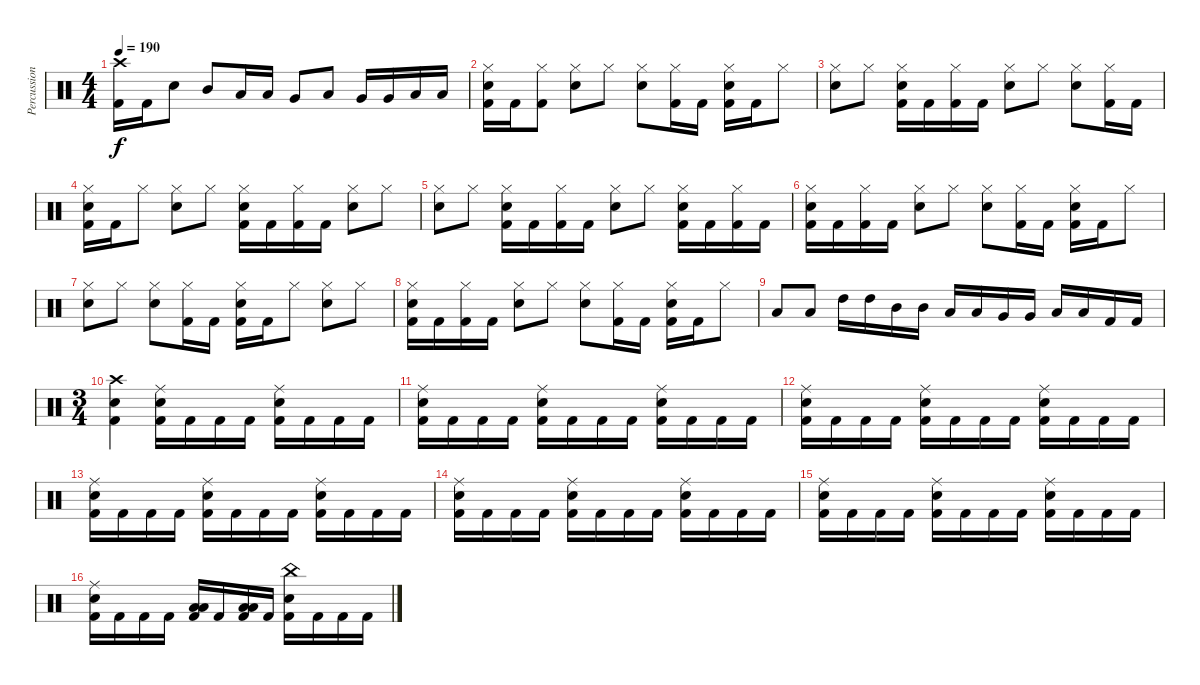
\track ("Percussion" "Percussion") {instrument percussion}
\staff {score}
\articulation defaults
\ts (4 4)
\tempo 190
\clef neutral
\ks c
("Crash high (hit)" "Kick (hit) 2").16{dy f} "Kick (hit) 2".16 "Electric Snare (hit)".8 "Mid Tom (hit)".8 "Low Tom (hit)".16 "Low Tom (hit)".16 "Very Low Tom (hit)".8 "Low Tom (hit)".8 "Very Low Tom (hit)".16 "Very Low Tom (hit)".16 "Low Floor Tom (hit)".16 "Low Floor Tom (hit)".16 |
("Hi-Hat (closed)" "Electric Snare (hit)" "Kick (hit) 2").16 "Kick (hit) 2".16 ("Hi-Hat (closed)" "Kick (hit) 2").8 ("Hi-Hat (closed)" "Electric Snare (hit)").8 "Hi-Hat (closed)".8 ("Hi-Hat (closed)" "Electric Snare (hit)").8 ("Hi-Hat (closed)" "Kick (hit) 2").16 "Kick (hit) 2".16 ("Hi-Hat (closed)" "Electric Snare (hit)" "Kick (hit) 2").16 "Kick (hit) 2".16 "Hi-Hat (closed)".8 |
("Hi-Hat (closed)" "Electric Snare (hit)").8 "Hi-Hat (closed)".8 ("Hi-Hat (closed)" "Electric Snare (hit)" "Kick (hit) 2").16 "Kick (hit) 2".16 ("Hi-Hat (closed)" "Kick (hit) 2").16 "Kick (hit) 2".16 ("Hi-Hat (closed)" "Electric Snare (hit)").8 "Hi-Hat (closed)".8 ("Hi-Hat (closed)" "Electric Snare (hit)").8 ("Hi-Hat (closed)" "Kick (hit) 2").16 "Kick (hit) 2".16 |
("Hi-Hat (closed)" "Electric Snare (hit)" "Kick (hit) 2").16 "Kick (hit) 2".16 "Hi-Hat (closed)".8 ("Hi-Hat (closed)" "Electric Snare (hit)").8 "Hi-Hat (closed)".8 ("Hi-Hat (closed)" "Electric Snare (hit)" "Kick (hit) 2").16 "Kick (hit) 2".16 ("Hi-Hat (closed)" "Kick (hit) 2").16 "Kick (hit) 2".16 ("Hi-Hat (closed)" "Electric Snare (hit)").8 "Hi-Hat (closed)".8 |
("Hi-Hat (closed)" "Electric Snare (hit)").8 "Hi-Hat (closed)".8 ("Hi-Hat (closed)" "Electric Snare (hit)" "Kick (hit) 2").16 "Kick (hit) 2".16 ("Hi-Hat (closed)" "Kick (hit) 2").16 "Kick (hit) 2".16 ("Hi-Hat (closed)" "Electric Snare (hit)").8 "Hi-Hat (closed)".8 ("Hi-Hat (closed)" "Electric Snare (hit)" "Kick (hit) 2").16 "Kick (hit) 2".16 ("Hi-Hat (closed)" "Kick (hit) 2").16 "Kick (hit) 2".16 |
("Hi-Hat (closed)" "Electric Snare (hit)" "Kick (hit) 2").16 "Kick (hit) 2".16 ("Hi-Hat (closed)" "Kick (hit) 2").16 "Kick (hit) 2".16 ("Hi-Hat (closed)" "Electric Snare (hit)").8 "Hi-Hat (closed)".8 ("Hi-Hat (closed)" "Electric Snare (hit)").8 ("Hi-Hat (closed)" "Kick (hit) 2").16 "Kick (hit) 2".16 ("Hi-Hat (closed)" "Electric Snare (hit)" "Kick (hit) 2").16 "Kick (hit) 2".16 "Hi-Hat (closed)".8 |
("Hi-Hat (closed)" "Electric Snare (hit)").8 "Hi-Hat (closed)".8 ("Hi-Hat (closed)" "Electric Snare (hit)").8 ("Hi-Hat (closed)" "Kick (hit) 2").16 "Kick (hit) 2".16 ("Hi-Hat (closed)" "Electric Snare (hit)" "Kick (hit) 2").16 "Kick (hit) 2".16 "Hi-Hat (closed)".8 ("Hi-Hat (closed)" "Electric Snare (hit)").8 "Hi-Hat (closed)".8 |
("Hi-Hat (closed)" "Electric Snare (hit)" "Kick (hit) 2").16 "Kick (hit) 2".16 ("Hi-Hat (closed)" "Kick (hit) 2").16 "Kick (hit) 2".16 ("Hi-Hat (closed)" "Electric Snare (hit)").8 "Hi-Hat (closed)".8 ("Hi-Hat (closed)" "Electric Snare (hit)").8 ("Hi-Hat (closed)" "Kick (hit) 2").16 "Kick (hit) 2".16 ("Hi-Hat (closed)" "Electric Snare (hit)" "Kick (hit) 2").16 "Kick (hit) 2".16 "Hi-Hat (closed)".8 |
"Low Tom (hit)".8 "Low Tom (hit)".8 "High Tom (hit)".16 "High Tom (hit)".16 "Mid Tom (hit)".16 "Mid Tom (hit)".16 "Low Tom (hit)".16 "Low Tom (hit)".16 "Very Low Tom (hit)".16 "Very Low Tom (hit)".16 "Low Floor Tom (hit)".16 "Low Floor Tom (hit)".16 "Kick (hit) 2".16 "Kick (hit) 2".16 |
\ts (3 4)
("Crash high (hit)" "Electric Snare (hit)" "Kick (hit) 2").4 ("Ride (middle)" "Electric Snare (hit)" "Kick (hit) 2").16 "Kick (hit) 2".16 "Kick (hit) 2".16 "Kick (hit) 2".16 ("Ride (middle)" "Electric Snare (hit)" "Kick (hit) 2").16 "Kick (hit) 2".16 "Kick (hit) 2".16 "Kick (hit) 2".16 |
("Ride (middle)" "Electric Snare (hit)" "Kick (hit) 2").16 "Kick (hit) 2".16 "Kick (hit) 2".16 "Kick (hit) 2".16 ("Ride (middle)" "Electric Snare (hit)" "Kick (hit) 2").16 "Kick (hit) 2".16 "Kick (hit) 2".16 "Kick (hit) 2".16 ("Ride (middle)" "Electric Snare (hit)" "Kick (hit) 2").16 "Kick (hit) 2".16 "Kick (hit) 2".16 "Kick (hit) 2".16 |
("Ride (middle)" "Electric Snare (hit)" "Kick (hit) 2").16 "Kick (hit) 2".16 "Kick (hit) 2".16 "Kick (hit) 2".16 ("Ride (middle)" "Electric Snare (hit)" "Kick (hit) 2").16 "Kick (hit) 2".16 "Kick (hit) 2".16 "Kick (hit) 2".16 ("Ride (middle)" "Electric Snare (hit)" "Kick (hit) 2").16 "Kick (hit) 2".16 "Kick (hit) 2".16 "Kick (hit) 2".16 |
("Ride (middle)" "Electric Snare (hit)" "Kick (hit) 2").16 "Kick (hit) 2".16 "Kick (hit) 2".16 "Kick (hit) 2".16 ("Ride (middle)" "Electric Snare (hit)" "Kick (hit) 2").16 "Kick (hit) 2".16 "Kick (hit) 2".16 "Kick (hit) 2".16 ("Ride (middle)" "Electric Snare (hit)" "Kick (hit) 2").16 "Kick (hit) 2".16 "Kick (hit) 2".16 "Kick (hit) 2".16 |
("Ride (middle)" "Electric Snare (hit)" "Kick (hit) 2").16 "Kick (hit) 2".16 "Kick (hit) 2".16 "Kick (hit) 2".16 ("Ride (middle)" "Electric Snare (hit)" "Kick (hit) 2").16 "Kick (hit) 2".16 "Kick (hit) 2".16 "Kick (hit) 2".16 ("Ride (middle)" "Electric Snare (hit)" "Kick (hit) 2").16 "Kick (hit) 2".16 "Kick (hit) 2".16 "Kick (hit) 2".16 |
("Ride (middle)" "Electric Snare (hit)" "Kick (hit) 2").16 "Kick (hit) 2".16 "Kick (hit) 2".16 "Kick (hit) 2".16 ("Ride (middle)" "Electric Snare (hit)" "Kick (hit) 2").16 "Kick (hit) 2".16 "Kick (hit) 2".16 "Kick (hit) 2".16 ("Ride (middle)" "Electric Snare (hit)" "Kick (hit) 2").16 "Kick (hit) 2".16 "Kick (hit) 2".16 "Kick (hit) 2".16 |
("Ride (middle)" "Electric Snare (hit)" "Kick (hit) 2").16 "Kick (hit) 2".16 "Kick (hit) 2".16 "Kick (hit) 2".16 ("Low Tom (hit)" "Low Floor Tom (hit)" "Kick (hit) 2").16 "Kick (hit) 2".16 ("Low Tom (hit)" "Low Floor Tom (hit)" "Kick (hit) 2").16 "Kick (hit) 2".16 ("China (hit)" "Electric Snare (hit)" "Kick (hit) 2").16 "Kick (hit) 2".16 "Kick (hit) 2".16 "Kick (hit) 2".16
